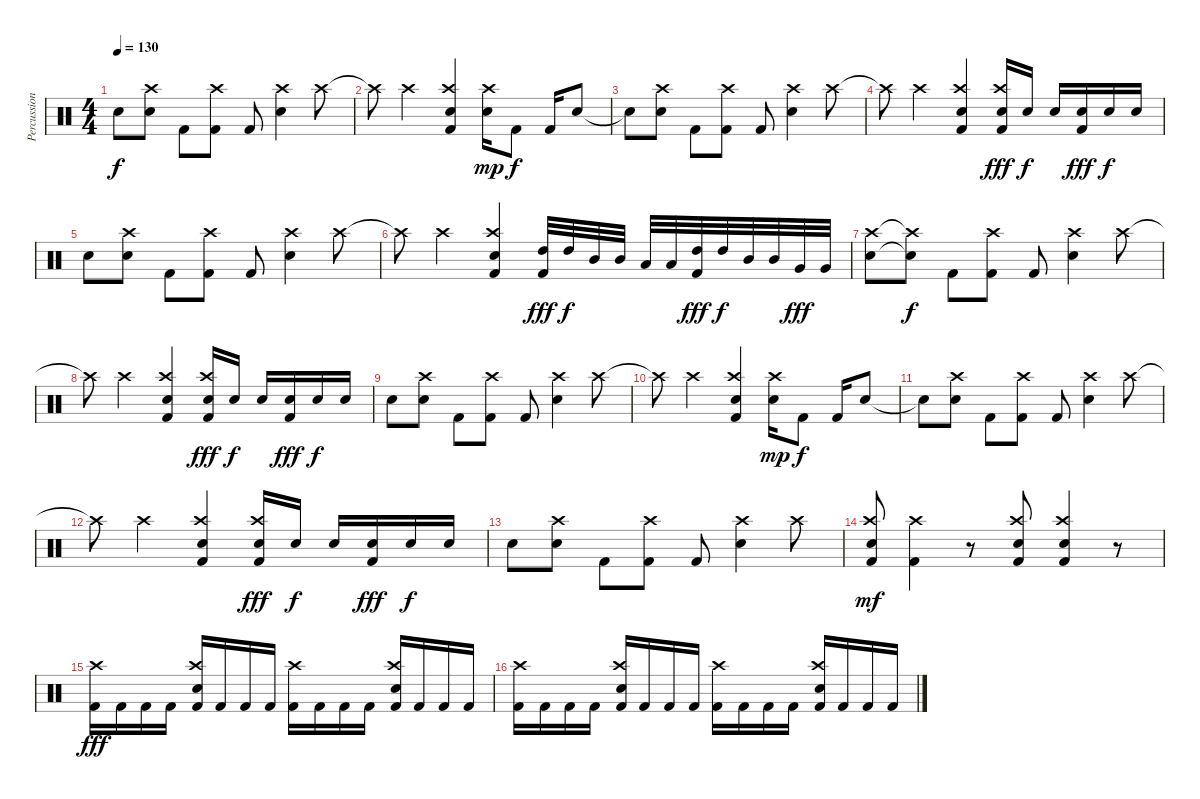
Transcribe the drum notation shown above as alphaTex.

\track ("Percussion" "Percussion") {instrument percussion}
\staff {score}
\articulation defaults
\ts (4 4)
\tempo 130
\clef neutral
\ks c "Electric Snare (hit)".8{dy f}
("Crash high (hit)" "Electric Snare (hit)").8 "Kick (hit) 2".8 ("Crash high (hit)" "Kick (hit) 2").8 "Kick (hit) 2".8 ("Crash high (hit)" "Electric Snare (hit)").4 "Crash high (hit)".8 |
"Crash high (hit)"{t}.8 "Crash high (hit)".4 ("Crash high (hit)" "Electric Snare (hit)" "Kick (hit) 2").4 ("Crash high (hit)" "Electric Snare (hit)").16{dy mp} "Kick (hit) 2".8{dy f} "Kick (hit) 2".16 "Electric Snare (hit)".8 |
"Electric Snare (hit)"{t}.8 ("Crash high (hit)" "Electric Snare (hit)").8 "Kick (hit) 2".8 ("Crash high (hit)" "Kick (hit) 2").8 "Kick (hit) 2".8 ("Crash high (hit)" "Electric Snare (hit)").4 "Crash high (hit)".8 |
"Crash high (hit)"{t}.8 "Crash high (hit)".4 ("Crash high (hit)" "Electric Snare (hit)" "Kick (hit) 2").4 ("Crash high (hit)" "Electric Snare (hit)" "Kick (hit) 2").16{dy fff} "Electric Snare (hit)".16{dy f} "Electric Snare (hit)".16 ("Electric Snare (hit)" "Kick (hit) 2").16{dy fff} "Electric Snare (hit)".16{dy f} "Electric Snare (hit)".16 |
"Electric Snare (hit)".8 ("Crash high (hit)" "Electric Snare (hit)").8 "Kick (hit) 2".8 ("Crash high (hit)" "Kick (hit) 2").8 "Kick (hit) 2".8 ("Crash high (hit)" "Electric Snare (hit)").4 "Crash high (hit)".8 |
"Crash high (hit)"{t}.8 "Crash high (hit)".4 ("Crash high (hit)" "Electric Snare (hit)" "Kick (hit) 2").4 ("High Tom (hit)" "Kick (hit) 2").32{dy fff} "High Tom (hit)".32{dy f} "Mid Tom (hit)".32 "Mid Tom (hit)".32 "Low Tom (hit)".32 "Low Tom (hit)".32 ("High Tom (hit)" "Kick (hit) 2").32{dy fff} "High Tom (hit)".32{dy f} "Mid Tom (hit)".32 "Mid Tom (hit)".32 "Very Low Tom (hit)".32{dy fff} "Very Low Tom (hit)".32 |
("Crash high (hit)" "Electric Snare (hit)").8 ("Crash high (hit)"{t} "Electric Snare (hit)"{t}).8{dy f} "Kick (hit) 2".8 ("Crash high (hit)" "Kick (hit) 2").8 "Kick (hit) 2".8 ("Crash high (hit)" "Electric Snare (hit)").4 "Crash high (hit)".8 |
"Crash high (hit)"{t}.8 "Crash high (hit)".4 ("Crash high (hit)" "Electric Snare (hit)" "Kick (hit) 2").4 ("Crash high (hit)" "Electric Snare (hit)" "Kick (hit) 2").16{dy fff} "Electric Snare (hit)".16{dy f} "Electric Snare (hit)".16 ("Electric Snare (hit)" "Kick (hit) 2").16{dy fff} "Electric Snare (hit)".16{dy f} "Electric Snare (hit)".16 |
"Electric Snare (hit)".8 ("Crash high (hit)" "Electric Snare (hit)").8 "Kick (hit) 2".8 ("Crash high (hit)" "Kick (hit) 2").8 "Kick (hit) 2".8 ("Crash high (hit)" "Electric Snare (hit)").4 "Crash high (hit)".8 |
"Crash high (hit)"{t}.8 "Crash high (hit)".4 ("Crash high (hit)" "Electric Snare (hit)" "Kick (hit) 2").4 ("Crash high (hit)" "Electric Snare (hit)").16{dy mp} "Kick (hit) 2".8{dy f} "Kick (hit) 2".16 "Electric Snare (hit)".8 |
"Electric Snare (hit)"{t}.8 ("Crash high (hit)" "Electric Snare (hit)").8 "Kick (hit) 2".8 ("Crash high (hit)" "Kick (hit) 2").8 "Kick (hit) 2".8 ("Crash high (hit)" "Electric Snare (hit)").4 "Crash high (hit)".8 |
"Crash high (hit)"{t}.8 "Crash high (hit)".4 ("Crash high (hit)" "Electric Snare (hit)" "Kick (hit) 2").4 ("Crash high (hit)" "Electric Snare (hit)" "Kick (hit) 2").16{dy fff} "Electric Snare (hit)".16{dy f} "Electric Snare (hit)".16 ("Electric Snare (hit)" "Kick (hit) 2").16{dy fff} "Electric Snare (hit)".16{dy f} "Electric Snare (hit)".16 |
"Electric Snare (hit)".8 ("Crash high (hit)" "Electric Snare (hit)").8 "Kick (hit) 2".8 ("Crash high (hit)" "Kick (hit) 2").8 "Kick (hit) 2".8 ("Crash high (hit)" "Electric Snare (hit)").4 "Crash high (hit)".8 |
("Crash high (hit)" "Electric Snare (hit)" "Kick (hit) 2").8{dy mf} ("Crash high (hit)" "Kick (hit) 2").4 r.8 ("Crash high (hit)" "Electric Snare (hit)" "Kick (hit) 2").8 ("Crash high (hit)" "Electric Snare (hit)" "Kick (hit) 2").4 r.8 |
("Crash high (hit)" "Kick (hit) 2").16{dy fff} "Kick (hit) 2".16 "Kick (hit) 2".16 "Kick (hit) 2".16 ("Crash high (hit)" "Electric Snare (hit)" "Kick (hit) 2").16 "Kick (hit) 2".16 "Kick (hit) 2".16 "Kick (hit) 2".16 ("Crash high (hit)" "Kick (hit) 2").16 "Kick (hit) 2".16 "Kick (hit) 2".16 "Kick (hit) 2".16 ("Crash high (hit)" "Electric Snare (hit)" "Kick (hit) 2").16 "Kick (hit) 2".16 "Kick (hit) 2".16 "Kick (hit) 2".16 |
("Crash high (hit)" "Kick (hit) 2").16 "Kick (hit) 2".16 "Kick (hit) 2".16 "Kick (hit) 2".16 ("Crash high (hit)" "Electric Snare (hit)" "Kick (hit) 2").16 "Kick (hit) 2".16 "Kick (hit) 2".16 "Kick (hit) 2".16 ("Crash high (hit)" "Kick (hit) 2").16 "Kick (hit) 2".16 "Kick (hit) 2".16 "Kick (hit) 2".16 ("Crash high (hit)" "Electric Snare (hit)" "Kick (hit) 2").16 "Kick (hit) 2".16 "Kick (hit) 2".16 "Kick (hit) 2".16
